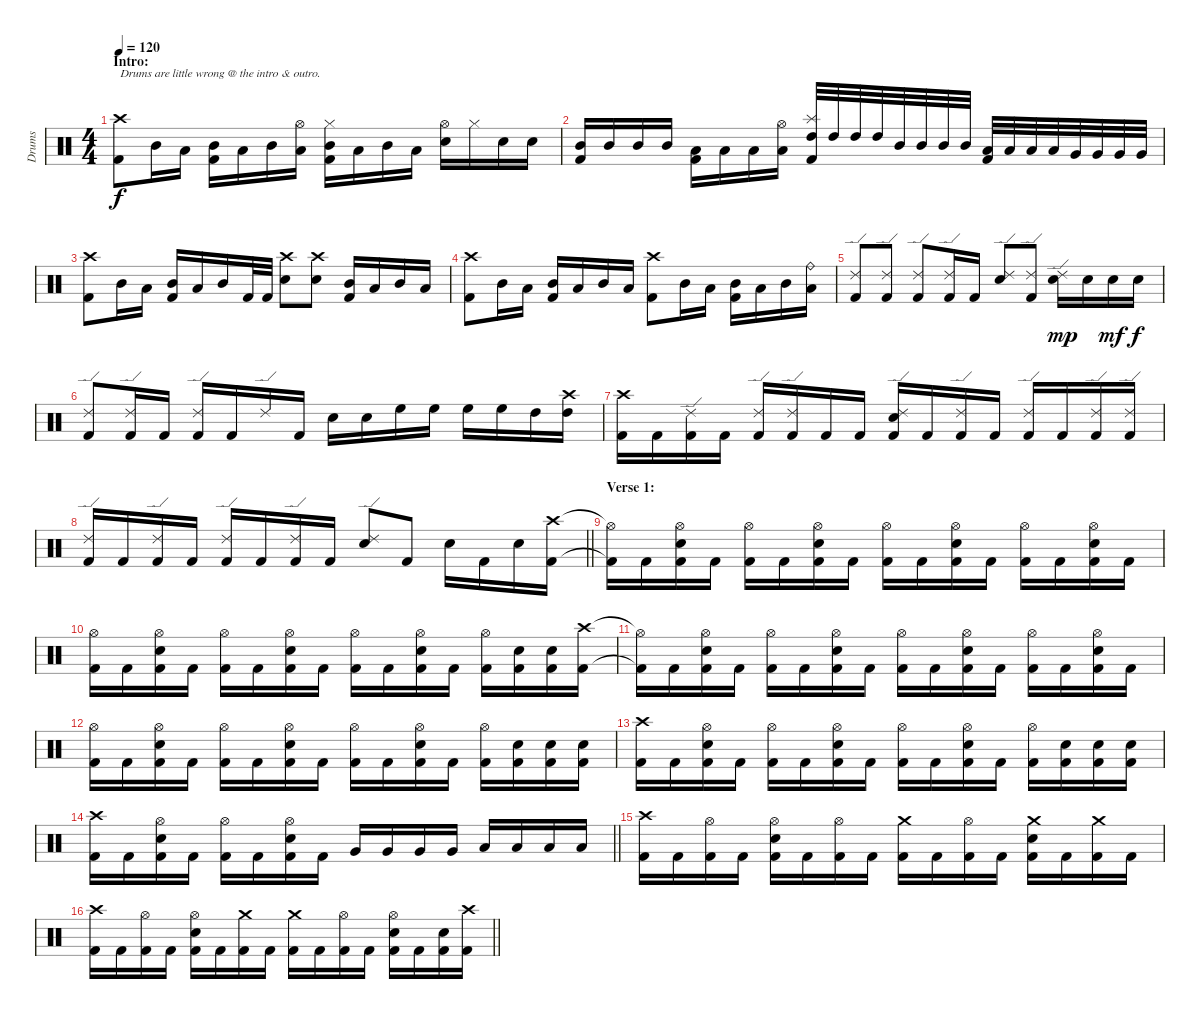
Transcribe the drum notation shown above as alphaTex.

\track ("Drums" "Drums") {instrument percussion}
\staff {score}
\articulation defaults
\ts (4 4)
\section ("" "Intro:")
\tempo 120
\clef neutral
\ks c
("Crash high (hit)" "Kick (hit) 2").8{txt "Drums are little wrong @ the intro & outro." dy f} "Mid Tom (hit)".16 "Low Tom (hit)".16 ("Mid Tom (hit)" "Kick (hit) 2").16 "Low Tom (hit)".16 "Mid Tom (hit)".16 ("Hi-Hat (open)" "Low Tom (hit)").16 ("Hi-Hat (closed)" "Mid Tom (hit)" "Kick (hit) 2").16 "Low Tom (hit)".16 "Mid Tom (hit)".16 "Low Tom (hit)".16 ("Hi-Hat (open)" "Electric Snare (hit)").16 "Hi-Hat (closed)".16 "Electric Snare (hit)".16 "Electric Snare (hit)".16 |
("Mid Tom (hit)" "Kick (hit) 2").16 "Mid Tom (hit)".16 "Mid Tom (hit)".16 "Mid Tom (hit)".16 ("Low Tom (hit)" "Kick (hit) 2").16 "Low Tom (hit)".16 "Low Tom (hit)".16 ("Hi-Hat (open)" "Low Tom (hit)").16 ("Splash (hit)" "High Tom (hit)" "Kick (hit) 2").32 "High Tom (hit)".32 "High Tom (hit)".32 "High Tom (hit)".32 "Mid Tom (hit)".32 "Mid Tom (hit)".32 "Mid Tom (hit)".32 "Mid Tom (hit)".32 ("Low Tom (hit)" "Kick (hit) 2").32 "Low Tom (hit)".32 "Low Tom (hit)".32 "Low Tom (hit)".32 "Very Low Tom (hit)".32 "Very Low Tom (hit)".32 "Very Low Tom (hit)".32 "Very Low Tom (hit)".32 |
("Crash high (hit)" "Kick (hit) 2").8 "Mid Tom (hit)".16 "Low Tom (hit)".16 ("Mid Tom (hit)" "Kick (hit) 2").16 "Low Tom (hit)".16 "Mid Tom (hit)".16 "Kick (hit) 2".32 "Kick (hit) 2".32 ("Crash high (hit)" "Electric Snare (hit)").8 ("Crash high (hit)" "Electric Snare (hit)").8 ("Mid Tom (hit)" "Kick (hit) 2").16 "Low Tom (hit)".16 "Mid Tom (hit)".16 "Low Tom (hit)".16 |
("Crash high (hit)" "Kick (hit) 2").8 "Mid Tom (hit)".16 "Low Tom (hit)".16 ("Mid Tom (hit)" "Kick (hit) 2").16 "Low Tom (hit)".16 "Mid Tom (hit)".16 "Low Tom (hit)".16 ("Crash high (hit)" "Kick (hit) 2").8 "Mid Tom (hit)".16 "Low Tom (hit)".16 ("Mid Tom (hit)" "Kick (hit) 2").16 "Low Tom (hit)".16 "Mid Tom (hit)".16 ("Ride (bell)" "Low Tom (hit)").16 |
("Ride (edge) 2" "Kick (hit) 2").8 ("Ride (edge) 2" "Kick (hit) 2").8 ("Ride (edge) 2" "Kick (hit) 2").8 ("Ride (edge) 2" "Kick (hit) 2").16 "Kick (hit) 2".16 ("Ride (edge) 2" "Electric Snare (hit)").8 ("Ride (edge) 2" "Kick (hit) 2").8 ("Ride (edge) 2" "Electric Snare (hit)").16{dy mp} "Electric Snare (hit)".16 "Electric Snare (hit)".16{dy mf} "Electric Snare (hit)".16{dy f} |
("Ride (edge) 2" "Kick (hit) 2").8 ("Ride (edge) 2" "Kick (hit) 2").16 "Kick (hit) 2".16 ("Ride (edge) 2" "Kick (hit) 2").16 "Kick (hit) 2".16 "Ride (edge) 2".16 "Kick (hit) 2".16 "Electric Snare (hit)".16 "Electric Snare (hit)".16 "High Floor Tom (hit)".16 "High Floor Tom (hit)".16 "High Floor Tom (hit)".16 "High Floor Tom (hit)".16 "High Tom (hit)".16 ("Crash high (hit)" "High Tom (hit)").16 |
("Crash high (hit)" "Kick (hit) 2").16 "Kick (hit) 2".16 ("Ride (edge) 2" "Kick (hit) 2").16 "Kick (hit) 2".16 ("Ride (edge) 2" "Kick (hit) 2").16 ("Ride (edge) 2" "Kick (hit) 2").16 "Kick (hit) 2".16 "Kick (hit) 2".16 ("Ride (edge) 2" "Electric Snare (hit)" "Kick (hit) 2").16 "Kick (hit) 2".16 ("Ride (edge) 2" "Kick (hit) 2").16 "Kick (hit) 2".16 ("Ride (edge) 2" "Kick (hit) 2").16 "Kick (hit) 2".16 ("Ride (edge) 2" "Kick (hit) 2").16 ("Ride (edge) 2" "Kick (hit) 2").16 |
\barLineRight lightlight
("Ride (edge) 2" "Kick (hit) 2").16 "Kick (hit) 2".16 ("Ride (edge) 2" "Kick (hit) 2").16 "Kick (hit) 2".16 ("Ride (edge) 2" "Kick (hit) 2").16 "Kick (hit) 2".16 ("Ride (edge) 2" "Kick (hit) 2").16 "Kick (hit) 2".16 ("Ride (edge) 2" "Electric Snare (hit)").8 "Kick (hit) 2".8 "Electric Snare (hit)".16 "Kick (hit) 2".16 "Electric Snare (hit)".16 ("Crash high (hit)" "Kick (hit) 2").16 |
\section ("" "Verse 1:")
("Hi-Hat (open)"{t} "Kick (hit) 2"{t}).16 "Kick (hit) 2".16 ("Hi-Hat (open)" "Electric Snare (hit)" "Kick (hit) 2").16 "Kick (hit) 2".16 ("Hi-Hat (open)" "Kick (hit) 2").16 "Kick (hit) 2".16 ("Hi-Hat (open)" "Electric Snare (hit)" "Kick (hit) 2").16 "Kick (hit) 2".16 ("Hi-Hat (open)" "Kick (hit) 2").16 "Kick (hit) 2".16 ("Hi-Hat (open)" "Electric Snare (hit)" "Kick (hit) 2").16 "Kick (hit) 2".16 ("Hi-Hat (open)" "Kick (hit) 2").16 "Kick (hit) 2".16 ("Hi-Hat (open)" "Electric Snare (hit)" "Kick (hit) 2").16 "Kick (hit) 2".16 |
("Hi-Hat (open)" "Kick (hit) 2").16 "Kick (hit) 2".16 ("Hi-Hat (open)" "Electric Snare (hit)" "Kick (hit) 2").16 "Kick (hit) 2".16 ("Hi-Hat (open)" "Kick (hit) 2").16 "Kick (hit) 2".16 ("Hi-Hat (open)" "Electric Snare (hit)" "Kick (hit) 2").16 "Kick (hit) 2".16 ("Hi-Hat (open)" "Kick (hit) 2").16 "Kick (hit) 2".16 ("Hi-Hat (open)" "Electric Snare (hit)" "Kick (hit) 2").16 "Kick (hit) 2".16 ("Hi-Hat (open)" "Kick (hit) 2").16 ("Electric Snare (hit)" "Kick (hit) 2").16 ("Electric Snare (hit)" "Kick (hit) 2").16 ("Crash high (hit)" "Kick (hit) 2").16 |
("Hi-Hat (open)"{t} "Kick (hit) 2"{t}).16 "Kick (hit) 2".16 ("Hi-Hat (open)" "Electric Snare (hit)" "Kick (hit) 2").16 "Kick (hit) 2".16 ("Hi-Hat (open)" "Kick (hit) 2").16 "Kick (hit) 2".16 ("Hi-Hat (open)" "Electric Snare (hit)" "Kick (hit) 2").16 "Kick (hit) 2".16 ("Hi-Hat (open)" "Kick (hit) 2").16 "Kick (hit) 2".16 ("Hi-Hat (open)" "Electric Snare (hit)" "Kick (hit) 2").16 "Kick (hit) 2".16 ("Hi-Hat (open)" "Kick (hit) 2").16 "Kick (hit) 2".16 ("Hi-Hat (open)" "Electric Snare (hit)" "Kick (hit) 2").16 "Kick (hit) 2".16 |
("Hi-Hat (open)" "Kick (hit) 2").16 "Kick (hit) 2".16 ("Hi-Hat (open)" "Electric Snare (hit)" "Kick (hit) 2").16 "Kick (hit) 2".16 ("Hi-Hat (open)" "Kick (hit) 2").16 "Kick (hit) 2".16 ("Hi-Hat (open)" "Electric Snare (hit)" "Kick (hit) 2").16 "Kick (hit) 2".16 ("Hi-Hat (open)" "Kick (hit) 2").16 "Kick (hit) 2".16 ("Hi-Hat (open)" "Electric Snare (hit)" "Kick (hit) 2").16 "Kick (hit) 2".16 ("Hi-Hat (open)" "Kick (hit) 2").16 ("Electric Snare (hit)" "Kick (hit) 2").16 ("Electric Snare (hit)" "Kick (hit) 2").16 ("Electric Snare (hit)" "Kick (hit) 2").16 |
("Crash high (hit)" "Kick (hit) 2").16 "Kick (hit) 2".16 ("Hi-Hat (open)" "Electric Snare (hit)" "Kick (hit) 2").16 "Kick (hit) 2".16 ("Hi-Hat (open)" "Kick (hit) 2").16 "Kick (hit) 2".16 ("Hi-Hat (open)" "Electric Snare (hit)" "Kick (hit) 2").16 "Kick (hit) 2".16 ("Hi-Hat (open)" "Kick (hit) 2").16 "Kick (hit) 2".16 ("Hi-Hat (open)" "Electric Snare (hit)" "Kick (hit) 2").16 "Kick (hit) 2".16 ("Hi-Hat (open)" "Kick (hit) 2").16 ("Electric Snare (hit)" "Kick (hit) 2").16 ("Electric Snare (hit)" "Kick (hit) 2").16 ("Electric Snare (hit)" "Kick (hit) 2").16 |
\barLineRight lightlight
("Crash high (hit)" "Kick (hit) 2").16 "Kick (hit) 2".16 ("Hi-Hat (open)" "Electric Snare (hit)" "Kick (hit) 2").16 "Kick (hit) 2".16 ("Hi-Hat (open)" "Kick (hit) 2").16 "Kick (hit) 2".16 ("Hi-Hat (open)" "Electric Snare (hit)" "Kick (hit) 2").16 "Kick (hit) 2".16 "Very Low Tom (hit)".16 "Very Low Tom (hit)".16 "Very Low Tom (hit)".16 "Very Low Tom (hit)".16 "Low Floor Tom (hit)".16 "Low Floor Tom (hit)".16 "Low Floor Tom (hit)".16 "Low Floor Tom (hit)".16 |
("Crash high (hit)" "Kick (hit) 2").16 "Kick (hit) 2".16 ("Hi-Hat (open)" "Kick (hit) 2").16 "Kick (hit) 2".16 ("Hi-Hat (open)" "Electric Snare (hit)" "Kick (hit) 2").16 "Kick (hit) 2".16 ("Hi-Hat (open)" "Kick (hit) 2").16 "Kick (hit) 2".16 ("Crash medium (hit)" "Kick (hit) 2").16 "Kick (hit) 2".16 ("Hi-Hat (open)" "Kick (hit) 2").16 "Kick (hit) 2".16 ("Crash medium (hit)" "Electric Snare (hit)" "Kick (hit) 2").16 "Kick (hit) 2".16 ("Crash medium (hit)" "Kick (hit) 2").16 "Kick (hit) 2".16 |
\barLineRight lightlight
("Crash high (hit)" "Kick (hit) 2").16 "Kick (hit) 2".16 ("Hi-Hat (open)" "Kick (hit) 2").16 "Kick (hit) 2".16 ("Hi-Hat (open)" "Electric Snare (hit)" "Kick (hit) 2").16 "Kick (hit) 2".16 ("Crash medium (hit)" "Kick (hit) 2").16 "Kick (hit) 2".16 ("Crash medium (hit)" "Kick (hit) 2").16 "Kick (hit) 2".16 ("Hi-Hat (open)" "Kick (hit) 2").16 "Kick (hit) 2".16 ("Hi-Hat (open)" "Electric Snare (hit)" "Kick (hit) 2").16 "Kick (hit) 2".16 ("Electric Snare (hit)" "Kick (hit) 2").16 ("Crash high (hit)" "Kick (hit) 2").16
